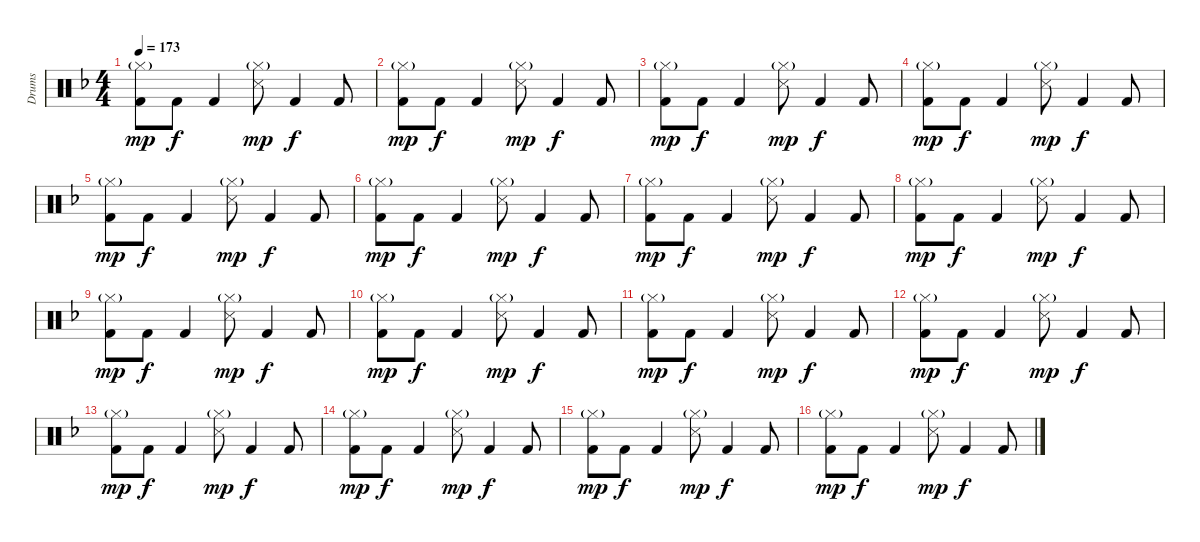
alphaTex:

\track ("Drums" "Drums") {instrument percussion}
\staff {score}
\articulation defaults
\ts (4 4)
\tempo 173
\clef neutral
\ks dminor
("Hi-Hat (closed)"{g} "Kick (hit) 2").8{dy mp} "Kick (hit) 2".8{dy f} "Kick (hit) 2".4 ("Hi-Hat (closed)"{g} "Snare (side stick) 3").8{dy mp} "Kick (hit) 2".4{dy f} "Kick (hit) 2".8 |
("Hi-Hat (closed)"{g} "Kick (hit) 2").8{dy mp} "Kick (hit) 2".8{dy f} "Kick (hit) 2".4 ("Hi-Hat (closed)"{g} "Snare (side stick) 3").8{dy mp} "Kick (hit) 2".4{dy f} "Kick (hit) 2".8 |
("Hi-Hat (closed)"{g} "Kick (hit) 2").8{dy mp} "Kick (hit) 2".8{dy f} "Kick (hit) 2".4 ("Hi-Hat (closed)"{g} "Snare (side stick) 3").8{dy mp} "Kick (hit) 2".4{dy f} "Kick (hit) 2".8 |
("Hi-Hat (closed)"{g} "Kick (hit) 2").8{dy mp} "Kick (hit) 2".8{dy f} "Kick (hit) 2".4 ("Hi-Hat (closed)"{g} "Snare (side stick) 3").8{dy mp} "Kick (hit) 2".4{dy f} "Kick (hit) 2".8 |
("Hi-Hat (closed)"{g} "Kick (hit) 2").8{dy mp} "Kick (hit) 2".8{dy f} "Kick (hit) 2".4 ("Hi-Hat (closed)"{g} "Snare (side stick) 3").8{dy mp} "Kick (hit) 2".4{dy f} "Kick (hit) 2".8 |
("Hi-Hat (closed)"{g} "Kick (hit) 2").8{dy mp} "Kick (hit) 2".8{dy f} "Kick (hit) 2".4 ("Hi-Hat (closed)"{g} "Snare (side stick) 3").8{dy mp} "Kick (hit) 2".4{dy f} "Kick (hit) 2".8 |
("Hi-Hat (closed)"{g} "Kick (hit) 2").8{dy mp} "Kick (hit) 2".8{dy f} "Kick (hit) 2".4 ("Hi-Hat (closed)"{g} "Snare (side stick) 3").8{dy mp} "Kick (hit) 2".4{dy f} "Kick (hit) 2".8 |
("Hi-Hat (closed)"{g} "Kick (hit) 2").8{dy mp} "Kick (hit) 2".8{dy f} "Kick (hit) 2".4 ("Hi-Hat (closed)"{g} "Snare (side stick) 3").8{dy mp} "Kick (hit) 2".4{dy f} "Kick (hit) 2".8 |
("Hi-Hat (closed)"{g} "Kick (hit) 2").8{dy mp} "Kick (hit) 2".8{dy f} "Kick (hit) 2".4 ("Hi-Hat (closed)"{g} "Snare (side stick) 3").8{dy mp} "Kick (hit) 2".4{dy f} "Kick (hit) 2".8 |
("Hi-Hat (closed)"{g} "Kick (hit) 2").8{dy mp} "Kick (hit) 2".8{dy f} "Kick (hit) 2".4 ("Hi-Hat (closed)"{g} "Snare (side stick) 3").8{dy mp} "Kick (hit) 2".4{dy f} "Kick (hit) 2".8 |
("Hi-Hat (closed)"{g} "Kick (hit) 2").8{dy mp} "Kick (hit) 2".8{dy f} "Kick (hit) 2".4 ("Hi-Hat (closed)"{g} "Snare (side stick) 3").8{dy mp} "Kick (hit) 2".4{dy f} "Kick (hit) 2".8 |
("Hi-Hat (closed)"{g} "Kick (hit) 2").8{dy mp} "Kick (hit) 2".8{dy f} "Kick (hit) 2".4 ("Hi-Hat (closed)"{g} "Snare (side stick) 3").8{dy mp} "Kick (hit) 2".4{dy f} "Kick (hit) 2".8 |
("Hi-Hat (closed)"{g} "Kick (hit) 2").8{dy mp} "Kick (hit) 2".8{dy f} "Kick (hit) 2".4 ("Hi-Hat (closed)"{g} "Snare (side stick) 3").8{dy mp} "Kick (hit) 2".4{dy f} "Kick (hit) 2".8 |
("Hi-Hat (closed)"{g} "Kick (hit) 2").8{dy mp} "Kick (hit) 2".8{dy f} "Kick (hit) 2".4 ("Hi-Hat (closed)"{g} "Snare (side stick) 3").8{dy mp} "Kick (hit) 2".4{dy f} "Kick (hit) 2".8 |
("Hi-Hat (closed)"{g} "Kick (hit) 2").8{dy mp} "Kick (hit) 2".8{dy f} "Kick (hit) 2".4 ("Hi-Hat (closed)"{g} "Snare (side stick) 3").8{dy mp} "Kick (hit) 2".4{dy f} "Kick (hit) 2".8 |
("Hi-Hat (closed)"{g} "Kick (hit) 2").8{dy mp} "Kick (hit) 2".8{dy f} "Kick (hit) 2".4 ("Hi-Hat (closed)"{g} "Snare (side stick) 3").8{dy mp} "Kick (hit) 2".4{dy f} "Kick (hit) 2".8
